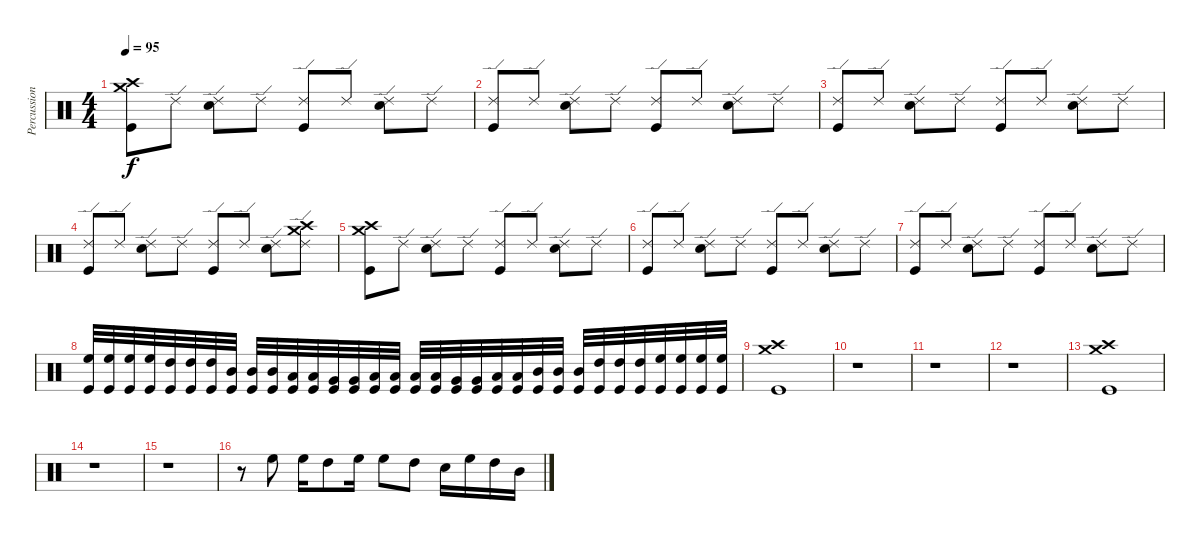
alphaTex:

\track ("Percussion" "Percussion") {instrument percussion}
\staff {score}
\articulation defaults
\ts (4 4)
\tempo 95
\clef neutral
\ks c
("Crash medium (hit)" "Crash high (hit)" "Kick (hit)").8{dy f} "Ride (edge) 2".8 ("Ride (edge) 2" "Electric Snare (hit)").8 "Ride (edge) 2".8 ("Ride (edge) 2" "Kick (hit)").8 "Ride (edge) 2".8 ("Ride (edge) 2" "Electric Snare (hit)").8 "Ride (edge) 2".8 |
("Ride (edge) 2" "Kick (hit)").8 "Ride (edge) 2".8 ("Ride (edge) 2" "Electric Snare (hit)").8 "Ride (edge) 2".8 ("Ride (edge) 2" "Kick (hit)").8 "Ride (edge) 2".8 ("Ride (edge) 2" "Electric Snare (hit)").8 "Ride (edge) 2".8 |
("Ride (edge) 2" "Kick (hit)").8 "Ride (edge) 2".8 ("Ride (edge) 2" "Electric Snare (hit)").8 "Ride (edge) 2".8 ("Ride (edge) 2" "Kick (hit)").8 "Ride (edge) 2".8 ("Ride (edge) 2" "Electric Snare (hit)").8 "Ride (edge) 2".8 |
("Ride (edge) 2" "Kick (hit)").8 "Ride (edge) 2".8 ("Ride (edge) 2" "Electric Snare (hit)").8 "Ride (edge) 2".8 ("Ride (edge) 2" "Kick (hit)").8 "Ride (edge) 2".8 ("Ride (edge) 2" "Electric Snare (hit)").8 ("Ride (edge) 2" "Crash medium (hit)" "Crash high (hit)").8 |
("Crash high (hit)" "Crash medium (hit)" "Kick (hit)").8 "Ride (edge) 2".8 ("Ride (edge) 2" "Electric Snare (hit)").8 "Ride (edge) 2".8 ("Ride (edge) 2" "Kick (hit)").8 "Ride (edge) 2".8 ("Ride (edge) 2" "Electric Snare (hit)").8 "Ride (edge) 2".8 |
("Ride (edge) 2" "Kick (hit)").8 "Ride (edge) 2".8 ("Ride (edge) 2" "Electric Snare (hit)").8 "Ride (edge) 2".8 ("Ride (edge) 2" "Kick (hit)").8 "Ride (edge) 2".8 ("Ride (edge) 2" "Electric Snare (hit)").8 "Ride (edge) 2".8 |
("Ride (edge) 2" "Kick (hit)").8 "Ride (edge) 2".8 ("Ride (edge) 2" "Electric Snare (hit)").8 "Ride (edge) 2".8 ("Ride (edge) 2" "Kick (hit)").8 "Ride (edge) 2".8 ("Ride (edge) 2" "Electric Snare (hit)").8 "Ride (edge) 2".8 |
("Kick (hit)" "High Floor Tom (hit)").32 ("Kick (hit)" "High Floor Tom (hit)").32 ("Kick (hit)" "High Floor Tom (hit)").32 ("Kick (hit)" "High Floor Tom (hit)").32 ("Kick (hit)" "High Tom (hit)").32 ("Kick (hit)" "High Tom (hit)").32 ("Kick (hit)" "High Tom (hit)").32 ("Kick (hit)" "Mid Tom (hit)").32 ("Kick (hit)" "Mid Tom (hit)").32 ("Kick (hit)" "Mid Tom (hit)").32 ("Kick (hit)" "Low Tom (hit)").32 ("Kick (hit)" "Low Tom (hit)").32 ("Kick (hit)" "Very Low Tom (hit)").32 ("Kick (hit)" "Very Low Tom (hit)").32 ("Kick (hit)" "Low Floor Tom (hit)").32 ("Kick (hit)" "Low Floor Tom (hit)").32 ("Kick (hit)" "Low Floor Tom (hit)").32 ("Kick (hit)" "Low Floor Tom (hit)").32 ("Kick (hit)" "Very Low Tom (hit)").32 ("Kick (hit)" "Very Low Tom (hit)").32 ("Kick (hit)" "Low Tom (hit)").32 ("Kick (hit)" "Low Tom (hit)").32 ("Kick (hit)" "Mid Tom (hit)").32 ("Kick (hit)" "Mid Tom (hit)").32 ("Kick (hit)" "Mid Tom (hit)").32 ("Kick (hit)" "High Tom (hit)").32 ("Kick (hit)" "High Tom (hit)").32 ("Kick (hit)" "High Tom (hit)").32 ("Kick (hit)" "High Floor Tom (hit)").32 ("Kick (hit)" "High Floor Tom (hit)").32 ("Kick (hit)" "High Floor Tom (hit)").32 ("Kick (hit)" "High Floor Tom (hit)").32 |
("Crash medium (hit)" "Crash high (hit)" "Kick (hit)").1 |
r.1 |
r.1 |
r.1 |
("Crash medium (hit)" "Crash high (hit)" "Kick (hit)").1 |
r.1 |
r.1 |
r.8 "High Floor Tom (hit)".8 "High Floor Tom (hit)".16 "High Tom (hit)".8 "High Floor Tom (hit)".16 "High Floor Tom (hit)".8 "High Tom (hit)".8 "Snare (hit) 2".16 "High Floor Tom (hit)".16 "High Tom (hit)".16 "Mid Tom (hit)".16
